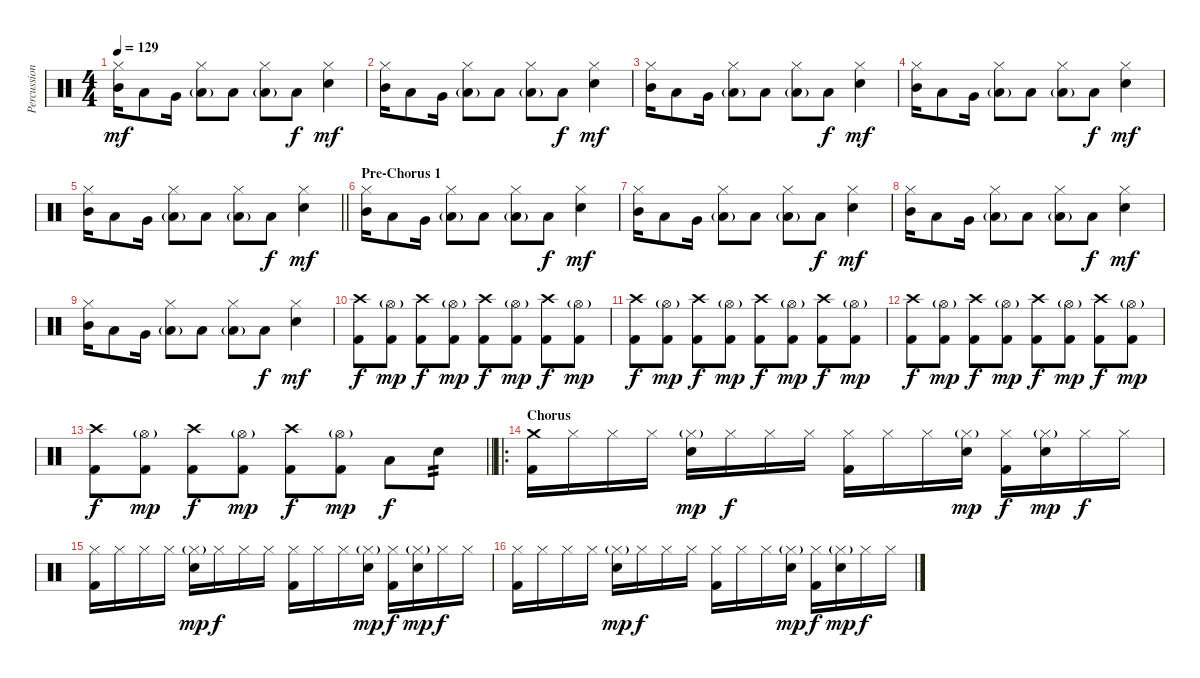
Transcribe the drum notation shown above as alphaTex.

\track ("Percussion" "Percussion") {instrument percussion}
\staff {score}
\articulation defaults
\ts (4 4)
\tempo 129
\clef neutral
\ks c
("Mid Tom (hit)" "Hi-Hat (closed)").16{dy mf} "Low Tom (hit)".8 "Very Low Tom (hit)".16 ("Low Floor Tom (hit)"{g} "Hi-Hat (closed)").8 "Low Floor Tom (hit)".8 ("Low Floor Tom (hit)"{g} "Hi-Hat (closed)").8 "Low Floor Tom (hit)".8{dy f} ("Hi-Hat (closed)" "Electric Snare (hit)").4{dy mf} |
("Mid Tom (hit)" "Hi-Hat (closed)").16 "Low Tom (hit)".8 "Very Low Tom (hit)".16 ("Low Floor Tom (hit)"{g} "Hi-Hat (closed)").8 "Low Floor Tom (hit)".8 ("Low Floor Tom (hit)"{g} "Hi-Hat (closed)").8 "Low Floor Tom (hit)".8{dy f} ("Hi-Hat (closed)" "Electric Snare (hit)").4{dy mf} |
("Mid Tom (hit)" "Hi-Hat (closed)").16 "Low Tom (hit)".8 "Very Low Tom (hit)".16 ("Low Floor Tom (hit)"{g} "Hi-Hat (closed)").8 "Low Floor Tom (hit)".8 ("Low Floor Tom (hit)"{g} "Hi-Hat (closed)").8 "Low Floor Tom (hit)".8{dy f} ("Hi-Hat (closed)" "Electric Snare (hit)").4{dy mf} |
("Mid Tom (hit)" "Hi-Hat (closed)").16 "Low Tom (hit)".8 "Very Low Tom (hit)".16 ("Low Floor Tom (hit)"{g} "Hi-Hat (closed)").8 "Low Floor Tom (hit)".8 ("Low Floor Tom (hit)"{g} "Hi-Hat (closed)").8 "Low Floor Tom (hit)".8{dy f} ("Hi-Hat (closed)" "Electric Snare (hit)").4{dy mf} |
\barLineRight lightlight
("Mid Tom (hit)" "Hi-Hat (closed)").16 "Low Tom (hit)".8 "Very Low Tom (hit)".16 ("Low Floor Tom (hit)"{g} "Hi-Hat (closed)").8 "Low Floor Tom (hit)".8 ("Low Floor Tom (hit)"{g} "Hi-Hat (closed)").8 "Low Floor Tom (hit)".8{dy f} ("Hi-Hat (closed)" "Electric Snare (hit)").4{dy mf} |
\section ("" "Pre-Chorus 1")
("Mid Tom (hit)" "Hi-Hat (closed)").16 "Low Tom (hit)".8 "Very Low Tom (hit)".16 ("Low Floor Tom (hit)"{g} "Hi-Hat (closed)").8 "Low Floor Tom (hit)".8 ("Low Floor Tom (hit)"{g} "Hi-Hat (closed)").8 "Low Floor Tom (hit)".8{dy f} ("Hi-Hat (closed)" "Electric Snare (hit)").4{dy mf} |
("Mid Tom (hit)" "Hi-Hat (closed)").16 "Low Tom (hit)".8 "Very Low Tom (hit)".16 ("Low Floor Tom (hit)"{g} "Hi-Hat (closed)").8 "Low Floor Tom (hit)".8 ("Low Floor Tom (hit)"{g} "Hi-Hat (closed)").8 "Low Floor Tom (hit)".8{dy f} ("Hi-Hat (closed)" "Electric Snare (hit)").4{dy mf} |
("Mid Tom (hit)" "Hi-Hat (closed)").16 "Low Tom (hit)".8 "Very Low Tom (hit)".16 ("Low Floor Tom (hit)"{g} "Hi-Hat (closed)").8 "Low Floor Tom (hit)".8 ("Low Floor Tom (hit)"{g} "Hi-Hat (closed)").8 "Low Floor Tom (hit)".8{dy f} ("Hi-Hat (closed)" "Electric Snare (hit)").4{dy mf} |
("Mid Tom (hit)" "Hi-Hat (closed)").16 "Low Tom (hit)".8 "Very Low Tom (hit)".16 ("Low Floor Tom (hit)"{g} "Hi-Hat (closed)").8 "Low Floor Tom (hit)".8 ("Low Floor Tom (hit)"{g} "Hi-Hat (closed)").8 "Low Floor Tom (hit)".8{dy f} ("Hi-Hat (closed)" "Electric Snare (hit)").4{dy mf} |
("Crash high (hit)" "Kick (hit) 2").8{dy f} ("Hi-Hat (open)"{g} "Kick (hit) 2").8{dy mp} ("Crash high (hit)" "Kick (hit) 2").8{dy f} ("Hi-Hat (open)"{g} "Kick (hit) 2").8{dy mp} ("Crash high (hit)" "Kick (hit) 2").8{dy f} ("Hi-Hat (open)"{g} "Kick (hit) 2").8{dy mp} ("Crash high (hit)" "Kick (hit) 2").8{dy f} ("Hi-Hat (open)"{g} "Kick (hit) 2").8{dy mp} |
("Crash high (hit)" "Kick (hit) 2").8{dy f} ("Hi-Hat (open)"{g} "Kick (hit) 2").8{dy mp} ("Crash high (hit)" "Kick (hit) 2").8{dy f} ("Hi-Hat (open)"{g} "Kick (hit) 2").8{dy mp} ("Crash high (hit)" "Kick (hit) 2").8{dy f} ("Hi-Hat (open)"{g} "Kick (hit) 2").8{dy mp} ("Crash high (hit)" "Kick (hit) 2").8{dy f} ("Hi-Hat (open)"{g} "Kick (hit) 2").8{dy mp} |
("Crash high (hit)" "Kick (hit) 2").8{dy f} ("Hi-Hat (open)"{g} "Kick (hit) 2").8{dy mp} ("Crash high (hit)" "Kick (hit) 2").8{dy f} ("Hi-Hat (open)"{g} "Kick (hit) 2").8{dy mp} ("Crash high (hit)" "Kick (hit) 2").8{dy f} ("Hi-Hat (open)"{g} "Kick (hit) 2").8{dy mp} ("Crash high (hit)" "Kick (hit) 2").8{dy f} ("Hi-Hat (open)"{g} "Kick (hit) 2").8{dy mp} |
\barLineRight lightlight
("Crash high (hit)" "Kick (hit) 2").8{dy f} ("Hi-Hat (open)"{g} "Kick (hit) 2").8{dy mp} ("Crash high (hit)" "Kick (hit) 2").8{dy f} ("Hi-Hat (open)"{g} "Kick (hit) 2").8{dy mp} ("Crash high (hit)" "Kick (hit) 2").8{dy f} ("Hi-Hat (open)"{g} "Kick (hit) 2").8{dy mp} "Low Tom (hit)".8{dy f} "Electric Snare (hit)".8{tp 2} |
\ro
\section ("" "Chorus")
("Crash medium (hit)" "Kick (hit) 2").16 "Hi-Hat (closed)".16 "Hi-Hat (closed)".16 "Hi-Hat (closed)".16 ("Hi-Hat (closed)"{g} "Electric Snare (hit)").16{dy mp} "Hi-Hat (closed)".16{dy f} "Hi-Hat (closed)".16 "Hi-Hat (closed)".16 ("Hi-Hat (closed)" "Kick (hit) 2").16 "Hi-Hat (closed)".16 "Hi-Hat (closed)".16 ("Hi-Hat (closed)"{g} "Electric Snare (hit)").16{dy mp} ("Hi-Hat (closed)" "Kick (hit) 2").16{dy f} ("Hi-Hat (closed)"{g} "Electric Snare (hit)").16{dy mp} "Hi-Hat (closed)".16{dy f} "Hi-Hat (closed)".16 |
("Hi-Hat (closed)" "Kick (hit) 2").16 "Hi-Hat (closed)".16 "Hi-Hat (closed)".16 "Hi-Hat (closed)".16 ("Hi-Hat (closed)"{g} "Electric Snare (hit)").16{dy mp} "Hi-Hat (closed)".16{dy f} "Hi-Hat (closed)".16 "Hi-Hat (closed)".16 ("Hi-Hat (closed)" "Kick (hit) 2").16 "Hi-Hat (closed)".16 "Hi-Hat (closed)".16 ("Hi-Hat (closed)"{g} "Electric Snare (hit)").16{dy mp} ("Hi-Hat (closed)" "Kick (hit) 2").16{dy f} ("Hi-Hat (closed)"{g} "Electric Snare (hit)").16{dy mp} "Hi-Hat (closed)".16{dy f} "Hi-Hat (closed)".16 |
("Hi-Hat (closed)" "Kick (hit) 2").16 "Hi-Hat (closed)".16 "Hi-Hat (closed)".16 "Hi-Hat (closed)".16 ("Hi-Hat (closed)"{g} "Electric Snare (hit)").16{dy mp} "Hi-Hat (closed)".16{dy f} "Hi-Hat (closed)".16 "Hi-Hat (closed)".16 ("Hi-Hat (closed)" "Kick (hit) 2").16 "Hi-Hat (closed)".16 "Hi-Hat (closed)".16 ("Hi-Hat (closed)"{g} "Electric Snare (hit)").16{dy mp} ("Hi-Hat (closed)" "Kick (hit) 2").16{dy f} ("Hi-Hat (closed)"{g} "Electric Snare (hit)").16{dy mp} "Hi-Hat (closed)".16{dy f} "Hi-Hat (closed)".16
